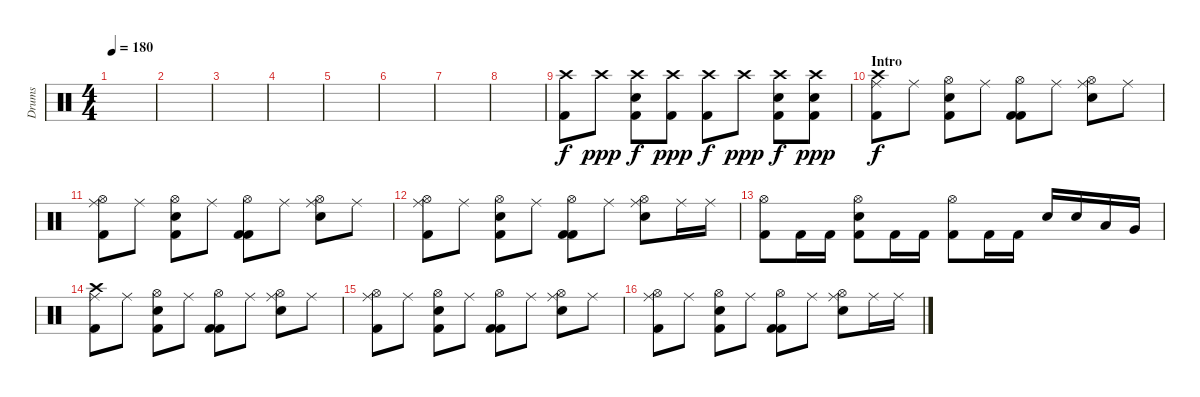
\track ("Drums" "Drums") {instrument percussion}
\staff {score}
\articulation defaults
\ts (4 4)
\tempo 180
\clef neutral
\ks c
|
|
|
|
|
|
|
|
("Crash high (hit)" "Kick (hit) 2").8 "Crash high (hit)".8{dy ppp} ("Crash high (hit)" "Kick (hit) 2" "Electric Snare (hit)").8{dy f} ("Crash high (hit)" "Kick (hit) 2").8{dy ppp} ("Crash high (hit)" "Kick (hit) 2").8{dy f} "Crash high (hit)".8{dy ppp} ("Crash high (hit)" "Kick (hit) 2" "Electric Snare (hit)").8{dy f} ("Crash high (hit)" "Kick (hit) 2" "Electric Snare (hit)").8{dy ppp} |
\section ("" "Intro")
("Ride (middle)" "Crash high (hit)" "Kick (hit) 2").8{dy f} "Ride (middle)".8 ("Kick (hit) 2" "Hi-Hat (open)" "Electric Snare (hit)").8 "Ride (middle)".8 ("Kick (hit) 2" "Hi-Hat (open)" "Kick (hit) 2").8 "Ride (middle)".8 ("Ride (middle)" "Hi-Hat (open)" "Electric Snare (hit)").8 "Ride (middle)".8 |
("Ride (middle)" "Hi-Hat (open)" "Kick (hit) 2").8 "Ride (middle)".8 ("Kick (hit) 2" "Hi-Hat (open)" "Electric Snare (hit)").8 "Ride (middle)".8 ("Kick (hit) 2" "Hi-Hat (open)" "Kick (hit) 2").8 "Ride (middle)".8 ("Ride (middle)" "Hi-Hat (open)" "Electric Snare (hit)").8 "Ride (middle)".8 |
("Ride (middle)" "Hi-Hat (open)" "Kick (hit) 2").8 "Ride (middle)".8 ("Kick (hit) 2" "Hi-Hat (open)" "Electric Snare (hit)").8 "Ride (middle)".8 ("Kick (hit) 2" "Hi-Hat (open)" "Kick (hit) 2").8 "Ride (middle)".8 ("Ride (middle)" "Hi-Hat (open)" "Electric Snare (hit)").8 "Ride (middle)".16 "Ride (middle)".16 |
("Kick (hit) 2" "Hi-Hat (open)").8 "Kick (hit) 2".16 "Kick (hit) 2".16 ("Kick (hit) 2" "Electric Snare (hit)" "Hi-Hat (open)").8 "Kick (hit) 2".16 "Kick (hit) 2".16 ("Kick (hit) 2" "Hi-Hat (open)").8 "Kick (hit) 2".16 "Kick (hit) 2".16 "Electric Snare (hit)".16 "Electric Snare (hit)".16 "Low Tom (hit)".16 "Very Low Tom (hit)".16 |
("Ride (middle)" "Crash high (hit)" "Kick (hit) 2").8 "Ride (middle)".8 ("Kick (hit) 2" "Hi-Hat (open)" "Electric Snare (hit)").8 "Ride (middle)".8 ("Kick (hit) 2" "Hi-Hat (open)" "Kick (hit) 2").8 "Ride (middle)".8 ("Ride (middle)" "Hi-Hat (open)" "Electric Snare (hit)").8 "Ride (middle)".8 |
("Ride (middle)" "Hi-Hat (open)" "Kick (hit) 2").8 "Ride (middle)".8 ("Kick (hit) 2" "Hi-Hat (open)" "Electric Snare (hit)").8 "Ride (middle)".8 ("Kick (hit) 2" "Hi-Hat (open)" "Kick (hit) 2").8 "Ride (middle)".8 ("Ride (middle)" "Hi-Hat (open)" "Electric Snare (hit)").8 "Ride (middle)".8 |
("Ride (middle)" "Hi-Hat (open)" "Kick (hit) 2").8 "Ride (middle)".8 ("Kick (hit) 2" "Hi-Hat (open)" "Electric Snare (hit)").8 "Ride (middle)".8 ("Kick (hit) 2" "Hi-Hat (open)" "Kick (hit) 2").8 "Ride (middle)".8 ("Ride (middle)" "Hi-Hat (open)" "Electric Snare (hit)").8 "Ride (middle)".16 "Ride (middle)".16
